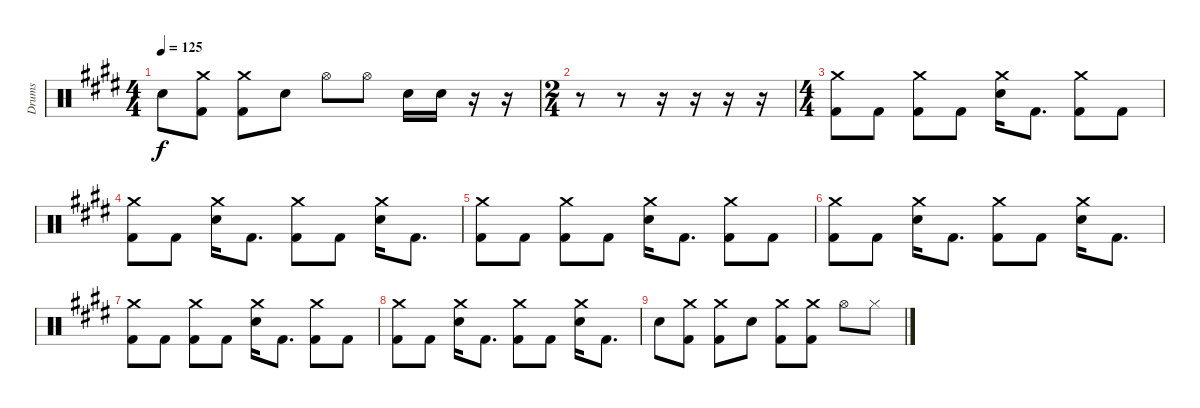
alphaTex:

\track ("Drums" "Drums") {instrument percussion}
\staff {score}
\articulation defaults
\ts (4 4)
\tempo 125
\clef neutral
\ks e "Snare (hit) 2".8{dy f}
("Crash medium (hit)" "Kick (hit) 2").8 ("Crash medium (hit)" "Kick (hit) 2").8 "Snare (hit) 2".8 "Hi-Hat (open)".8 "Hi-Hat (open)".8 "Snare (hit) 2".16 "Snare (hit) 2".16 r.16 r.16 |
\ts (2 4)
r.8 r.8 r.16 r.16 r.16 r.16 |
\ts (4 4)
("Crash medium (hit)" "Kick (hit) 2").8 "Kick (hit) 2".8 ("Crash medium (hit)" "Kick (hit) 2").8 "Kick (hit) 2".8 ("Crash medium (hit)" "Snare (hit) 2").16 "Kick (hit) 2".8{d} ("Crash medium (hit)" "Kick (hit) 2").8 "Kick (hit) 2".8 |
("Crash medium (hit)" "Kick (hit) 2").8 "Kick (hit) 2".8 ("Crash medium (hit)" "Snare (hit) 2").16 "Kick (hit) 2".8{d} ("Crash medium (hit)" "Kick (hit) 2").8 "Kick (hit) 2".8 ("Crash medium (hit)" "Snare (hit) 2").16 "Kick (hit) 2".8{d} |
("Crash medium (hit)" "Kick (hit) 2").8 "Kick (hit) 2".8 ("Crash medium (hit)" "Kick (hit) 2").8 "Kick (hit) 2".8 ("Crash medium (hit)" "Snare (hit) 2").16 "Kick (hit) 2".8{d} ("Crash medium (hit)" "Kick (hit) 2").8 "Kick (hit) 2".8 |
("Crash medium (hit)" "Kick (hit) 2").8 "Kick (hit) 2".8 ("Crash medium (hit)" "Snare (hit) 2").16 "Kick (hit) 2".8{d} ("Crash medium (hit)" "Kick (hit) 2").8 "Kick (hit) 2".8 ("Crash medium (hit)" "Snare (hit) 2").16 "Kick (hit) 2".8{d} |
("Crash medium (hit)" "Kick (hit) 2").8 "Kick (hit) 2".8 ("Crash medium (hit)" "Kick (hit) 2").8 "Kick (hit) 2".8 ("Crash medium (hit)" "Snare (hit) 2").16 "Kick (hit) 2".8{d} ("Crash medium (hit)" "Kick (hit) 2").8 "Kick (hit) 2".8 |
("Crash medium (hit)" "Kick (hit) 2").8 "Kick (hit) 2".8 ("Crash medium (hit)" "Snare (hit) 2").16 "Kick (hit) 2".8{d} ("Crash medium (hit)" "Kick (hit) 2").8 "Kick (hit) 2".8 ("Crash medium (hit)" "Snare (hit) 2").16 "Kick (hit) 2".8{d} |
"Snare (hit) 2".8 ("Crash medium (hit)" "Kick (hit) 2").8 ("Crash medium (hit)" "Kick (hit) 2").8 "Snare (hit) 2".8 ("Crash medium (hit)" "Kick (hit) 2").8 ("Crash medium (hit)" "Kick (hit) 2").8 "Hi-Hat (open)".8 "Hi-Hat (closed)".8
